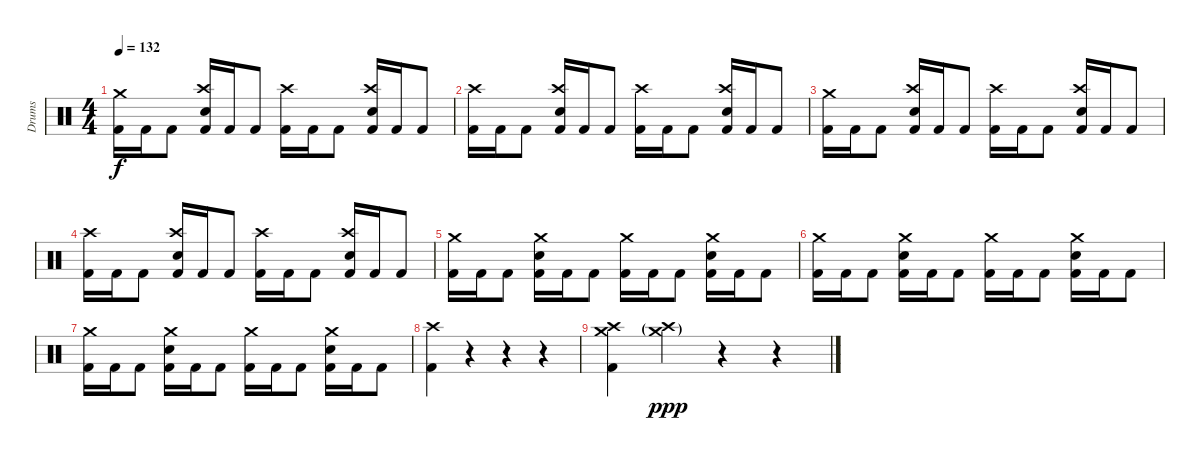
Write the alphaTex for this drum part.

\track ("Drums" "Drums") {instrument percussion}
\staff {score}
\articulation defaults
\ts (4 4)
\tempo 132
\clef neutral
\ks c
("Crash medium (hit)" "Kick (hit) 2").16{dy f} "Kick (hit) 2".16 "Kick (hit) 2".8 ("Crash high (hit)" "Electric Snare (hit)" "Kick (hit) 2").16 "Kick (hit) 2".16 "Kick (hit) 2".8 ("Crash high (hit)" "Kick (hit) 2").16 "Kick (hit) 2".16 "Kick (hit) 2".8 ("Crash high (hit)" "Electric Snare (hit)" "Kick (hit) 2").16 "Kick (hit) 2".16 "Kick (hit) 2".8 |
("Crash high (hit)" "Kick (hit) 2").16 "Kick (hit) 2".16 "Kick (hit) 2".8 ("Crash high (hit)" "Electric Snare (hit)" "Kick (hit) 2").16 "Kick (hit) 2".16 "Kick (hit) 2".8 ("Crash high (hit)" "Kick (hit) 2").16 "Kick (hit) 2".16 "Kick (hit) 2".8 ("Crash high (hit)" "Electric Snare (hit)" "Kick (hit) 2").16 "Kick (hit) 2".16 "Kick (hit) 2".8 |
("Crash medium (hit)" "Kick (hit) 2").16 "Kick (hit) 2".16 "Kick (hit) 2".8 ("Crash high (hit)" "Electric Snare (hit)" "Kick (hit) 2").16 "Kick (hit) 2".16 "Kick (hit) 2".8 ("Crash high (hit)" "Kick (hit) 2").16 "Kick (hit) 2".16 "Kick (hit) 2".8 ("Crash high (hit)" "Electric Snare (hit)" "Kick (hit) 2").16 "Kick (hit) 2".16 "Kick (hit) 2".8 |
("Crash high (hit)" "Kick (hit) 2").16 "Kick (hit) 2".16 "Kick (hit) 2".8 ("Crash high (hit)" "Electric Snare (hit)" "Kick (hit) 2").16 "Kick (hit) 2".16 "Kick (hit) 2".8 ("Crash high (hit)" "Kick (hit) 2").16 "Kick (hit) 2".16 "Kick (hit) 2".8 ("Crash high (hit)" "Electric Snare (hit)" "Kick (hit) 2").16 "Kick (hit) 2".16 "Kick (hit) 2".8 |
("Crash medium (hit)" "Kick (hit) 2").16 "Kick (hit) 2".16 "Kick (hit) 2".8 ("Crash medium (hit)" "Electric Snare (hit)" "Kick (hit) 2").16 "Kick (hit) 2".16 "Kick (hit) 2".8 ("Crash medium (hit)" "Kick (hit) 2").16 "Kick (hit) 2".16 "Kick (hit) 2".8 ("Crash medium (hit)" "Electric Snare (hit)" "Kick (hit) 2").16 "Kick (hit) 2".16 "Kick (hit) 2".8 |
("Crash medium (hit)" "Kick (hit) 2").16 "Kick (hit) 2".16 "Kick (hit) 2".8 ("Crash medium (hit)" "Electric Snare (hit)" "Kick (hit) 2").16 "Kick (hit) 2".16 "Kick (hit) 2".8 ("Crash medium (hit)" "Kick (hit) 2").16 "Kick (hit) 2".16 "Kick (hit) 2".8 ("Crash medium (hit)" "Electric Snare (hit)" "Kick (hit) 2").16 "Kick (hit) 2".16 "Kick (hit) 2".8 |
("Crash medium (hit)" "Kick (hit) 2").16 "Kick (hit) 2".16 "Kick (hit) 2".8 ("Crash medium (hit)" "Electric Snare (hit)" "Kick (hit) 2").16 "Kick (hit) 2".16 "Kick (hit) 2".8 ("Crash medium (hit)" "Kick (hit) 2").16 "Kick (hit) 2".16 "Kick (hit) 2".8 ("Crash medium (hit)" "Electric Snare (hit)" "Kick (hit) 2").16 "Kick (hit) 2".16 "Kick (hit) 2".8 |
("Crash high (hit)" "Kick (hit) 2").4 r.4 r.4 r.4 |
("Crash high (hit)" "Crash medium (hit)" "Kick (hit) 2").4 ("Crash high (hit)"{g} "Crash medium (hit)"{g}).4{dy ppp} r.4 r.4
